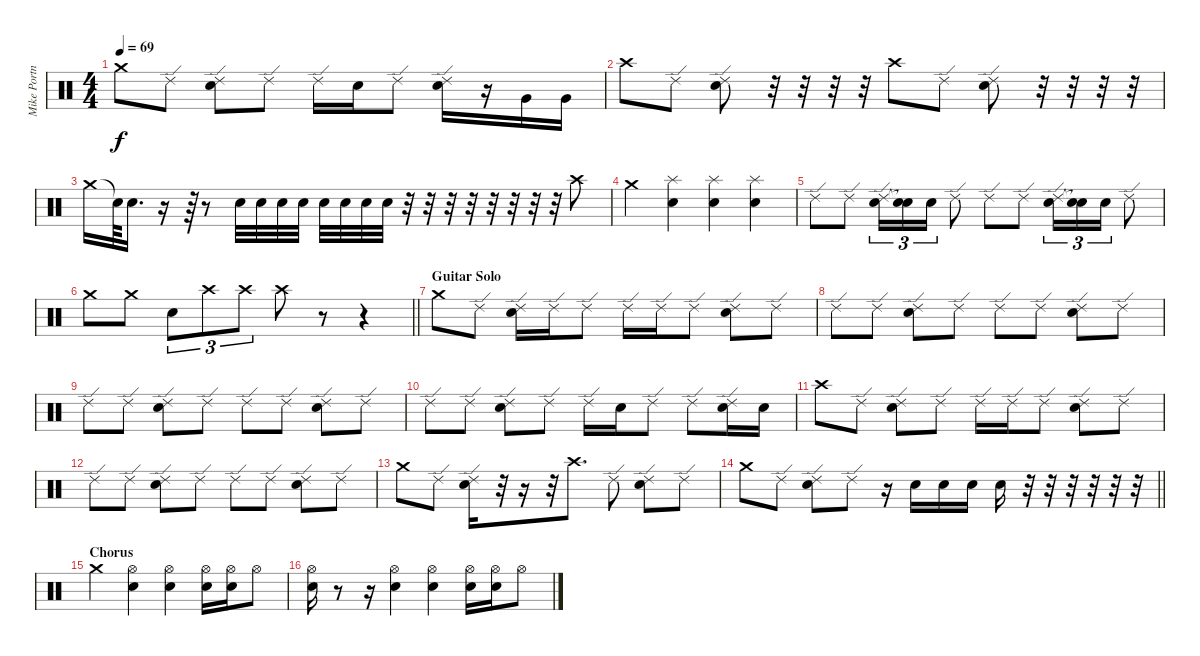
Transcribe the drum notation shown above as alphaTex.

\track ("Mike Portnoy" "Mike Portn") {instrument percussion}
\staff {score}
\articulation defaults
\ts (4 4)
\tempo 69
\clef neutral
\ks c "Crash medium (hit)".8{dy f} "Ride (edge) 2".8
("Snare (hit) 2" "Ride (edge) 2").8 "Ride (edge) 2".8 "Ride (edge) 2".16 "Snare (hit) 2".16 "Ride (edge) 2".8 ("Snare (hit) 2" "Ride (edge) 2").16 r.16 "Very Low Tom (hit)".16 "Very Low Tom (hit)".16 |
"Crash high (hit)".8 "Ride (edge) 2".8 ("Snare (hit) 2" "Ride (edge) 2").8 r.32 r.32 r.32 r.32 "Crash high (hit)".8 "Ride (edge) 2".8 ("Snare (hit) 2" "Ride (edge) 2").8 r.32 r.32 r.32 r.32 |
"Crash medium (hit)".16 "Snare (hit)"{t}.64 "Snare (hit) 2".16{d} r.16 r.64 r.8 "Snare (hit) 2".32 "Snare (hit) 2".32 "Snare (hit) 2".32 "Snare (hit) 2".32 "Snare (hit) 2".32 "Snare (hit) 2".32 "Snare (hit) 2".32 "Snare (hit) 2".32 r.32 r.32 r.32 r.32 r.32 r.32 r.32 r.32 "Crash high (hit)".8 |
"Crash medium (hit)".4 ("Snare (hit) 2" "Splash (hit)").4 ("Snare (hit) 2" "Splash (hit)").4 ("Snare (hit) 2" "Splash (hit)").4 |
"Ride (edge) 2".8 "Ride (edge) 2".8 ("Snare (hit) 2" "Ride (edge) 2").16{tu (3 2)} ("Snare (hit)"{t} "Snare (hit)"{t}).16{tu (3 2)} "Snare (hit) 2".16{tu (3 2)} "Ride (edge) 2".8 "Ride (edge) 2".8 "Ride (edge) 2".8 ("Snare (hit) 2" "Ride (edge) 2").16{tu (3 2)} ("Snare (hit)"{t} "Snare (hit)"{t}).16{tu (3 2)} "Snare (hit) 2".16{tu (3 2)} "Ride (edge) 2".8 |
\barLineRight lightlight "Crash medium (hit)".8 "Crash medium (hit)".8 "Snare (hit) 2".8{tu (3 2)} "Crash high (hit)".8{tu (3 2)} "Crash high (hit)".8{tu (3 2)} "Crash high (hit)".8
r.8 r.4 |
\section ("" "Guitar Solo")
"Crash medium (hit)".8 "Ride (edge) 2".8 ("Snare (hit) 2" "Ride (edge) 2").16 "Ride (edge) 2".16 "Ride (edge) 2".8 "Ride (edge) 2".16 "Ride (edge) 2".16 "Ride (edge) 2".8 ("Snare (hit) 2" "Ride (edge) 2").8 "Ride (edge) 2".8 |
"Ride (edge) 2".8 "Ride (edge) 2".8 ("Snare (hit) 2" "Ride (edge) 2").8 "Ride (edge) 2".8 "Ride (edge) 2".8 "Ride (edge) 2".8 ("Snare (hit) 2" "Ride (edge) 2").8 "Ride (edge) 2".8 |
"Ride (edge) 2".8 "Ride (edge) 2".8 ("Snare (hit) 2" "Ride (edge) 2").8 "Ride (edge) 2".8 "Ride (edge) 2".8 "Ride (edge) 2".8 ("Snare (hit) 2" "Ride (edge) 2").8 "Ride (edge) 2".8 |
"Ride (edge) 2".8 "Ride (edge) 2".8 ("Snare (hit) 2" "Ride (edge) 2").8 "Ride (edge) 2".8 "Ride (edge) 2".16 "Snare (hit) 2".16 "Ride (edge) 2".8 "Ride (edge) 2".8 ("Snare (hit) 2" "Ride (edge) 2").16 "Snare (hit) 2".16 |
"Crash high (hit)".8 "Ride (edge) 2".8 ("Snare (hit) 2" "Ride (edge) 2").8 "Ride (edge) 2".8 "Ride (edge) 2".16 "Ride (edge) 2".16 "Ride (edge) 2".8 ("Snare (hit) 2" "Ride (edge) 2").8 "Ride (edge) 2".8 |
"Ride (edge) 2".8 "Ride (edge) 2".8 ("Snare (hit) 2" "Ride (edge) 2").8 "Ride (edge) 2".8 "Ride (edge) 2".8 "Ride (edge) 2".8 ("Snare (hit) 2" "Ride (edge) 2").8 "Ride (edge) 2".8 |
"Crash medium (hit)".8 "Ride (edge) 2".8 ("Snare (hit) 2" "Ride (edge) 2").16 r.32 r.16 r.32 "Crash high (hit)".8{d} "Ride (edge) 2".8 ("Snare (hit) 2" "Ride (edge) 2").8 "Ride (edge) 2".8 |
\barLineRight lightlight "Crash medium (hit)".8 "Ride (edge) 2".8
("Snare (hit) 2" "Ride (edge) 2").8 "Ride (edge) 2".8 r.16 "Snare (hit) 2".16 "Snare (hit) 2".16 "Snare (hit) 2".16 "Snare (hit) 2".16 r.32 r.32 r.32 r.32 r.32 r.32 |
\section ("" "Chorus")
"Crash medium (hit)".4 ("Snare (hit) 2" "Hi-Hat (open)").4 ("Snare (hit) 2" "Hi-Hat (open)").4 ("Snare (hit) 2" "Hi-Hat (open)").16 ("Snare (hit) 2" "Hi-Hat (open)").16 "Hi-Hat (open)".8 |
("Snare (hit) 2" "Hi-Hat (open)").16 r.8 r.16 ("Snare (hit) 2" "Hi-Hat (open)").4 ("Snare (hit) 2" "Hi-Hat (open)").4 ("Snare (hit) 2" "Hi-Hat (open)").16 ("Snare (hit) 2" "Hi-Hat (open)").16 "Hi-Hat (open)".8
